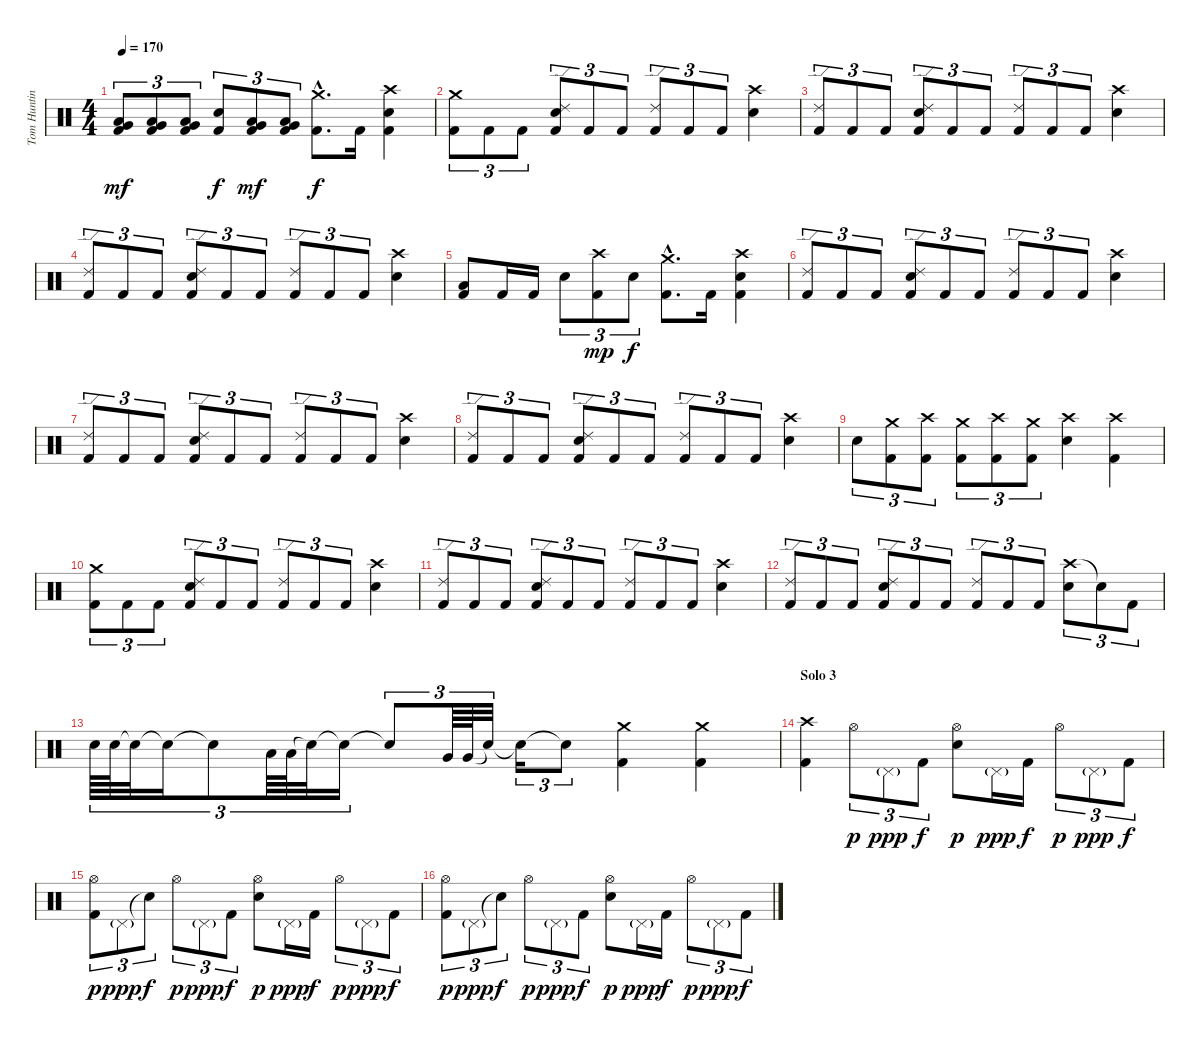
\track ("Tom Hunting" "Tom Huntin") {instrument percussion}
\staff {score}
\articulation defaults
\ts (4 4)
\tempo 170
\clef neutral
\ks c
("Kick (hit) 2" "Low Tom (hit)" "Very Low Tom (hit)").8{tu (3 2) dy mf} ("Kick (hit) 2" "Low Tom (hit)" "Very Low Tom (hit)").8{tu (3 2)} ("Kick (hit) 2" "Very Low Tom (hit)" "Low Floor Tom (hit)").8{tu (3 2)} ("Kick (hit) 2" "Snare (hit) 2").8{tu (3 2) dy f} ("Kick (hit) 2" "Low Tom (hit)" "Very Low Tom (hit)").8{tu (3 2) dy mf} ("Kick (hit) 2" "Very Low Tom (hit)" "Low Floor Tom (hit)").8{tu (3 2)} ("Kick (hit) 2"{hac} "Crash medium (hit)"{hac}).8{d dy f} "Kick (hit) 2".16 ("Kick (hit) 2" "Crash high (hit)" "Snare (hit) 2").4 |
("Kick (hit) 2" "Crash medium (hit)").8{tu (3 2)} "Kick (hit) 2".8{tu (3 2)} "Kick (hit) 2".8{tu (3 2)} ("Kick (hit) 2" "Ride (edge) 2" "Snare (hit) 2").8{tu (3 2)} "Kick (hit) 2".8{tu (3 2)} "Kick (hit) 2".8{tu (3 2)} ("Kick (hit) 2" "Ride (edge) 2").8{tu (3 2)} "Kick (hit) 2".8{tu (3 2)} "Kick (hit) 2".8{tu (3 2)} ("Crash high (hit)" "Snare (hit) 2").4 |
("Kick (hit) 2" "Ride (edge) 2").8{tu (3 2)} "Kick (hit) 2".8{tu (3 2)} "Kick (hit) 2".8{tu (3 2)} ("Kick (hit) 2" "Ride (edge) 2" "Snare (hit) 2").8{tu (3 2)} "Kick (hit) 2".8{tu (3 2)} "Kick (hit) 2".8{tu (3 2)} ("Kick (hit) 2" "Ride (edge) 2").8{tu (3 2)} "Kick (hit) 2".8{tu (3 2)} "Kick (hit) 2".8{tu (3 2)} ("Crash high (hit)" "Snare (hit) 2").4 |
("Kick (hit) 2" "Ride (edge) 2").8{tu (3 2)} "Kick (hit) 2".8{tu (3 2)} "Kick (hit) 2".8{tu (3 2)} ("Kick (hit) 2" "Ride (edge) 2" "Snare (hit) 2").8{tu (3 2)} "Kick (hit) 2".8{tu (3 2)} "Kick (hit) 2".8{tu (3 2)} ("Kick (hit) 2" "Ride (edge) 2").8{tu (3 2)} "Kick (hit) 2".8{tu (3 2)} "Kick (hit) 2".8{tu (3 2)} ("Crash high (hit)" "Snare (hit) 2").4 |
("Kick (hit) 2" "Low Tom (hit)").8 "Kick (hit) 2".16 "Kick (hit) 2".16 "Snare (hit) 2".8{tu (3 2)} ("Kick (hit) 2" "Crash high (hit)").8{tu (3 2) dy mp} "Snare (hit) 2".8{tu (3 2) dy f} ("Kick (hit) 2"{hac} "Crash medium (hit)"{hac}).8{d} "Kick (hit) 2".16 ("Kick (hit) 2" "Crash high (hit)" "Snare (hit) 2").4 |
("Kick (hit) 2" "Ride (edge) 2").8{tu (3 2)} "Kick (hit) 2".8{tu (3 2)} "Kick (hit) 2".8{tu (3 2)} ("Kick (hit) 2" "Ride (edge) 2" "Snare (hit) 2").8{tu (3 2)} "Kick (hit) 2".8{tu (3 2)} "Kick (hit) 2".8{tu (3 2)} ("Kick (hit) 2" "Ride (edge) 2").8{tu (3 2)} "Kick (hit) 2".8{tu (3 2)} "Kick (hit) 2".8{tu (3 2)} ("Crash high (hit)" "Snare (hit) 2").4 |
("Kick (hit) 2" "Ride (edge) 2").8{tu (3 2)} "Kick (hit) 2".8{tu (3 2)} "Kick (hit) 2".8{tu (3 2)} ("Kick (hit) 2" "Ride (edge) 2" "Snare (hit) 2").8{tu (3 2)} "Kick (hit) 2".8{tu (3 2)} "Kick (hit) 2".8{tu (3 2)} ("Kick (hit) 2" "Ride (edge) 2").8{tu (3 2)} "Kick (hit) 2".8{tu (3 2)} "Kick (hit) 2".8{tu (3 2)} ("Crash high (hit)" "Snare (hit) 2").4 |
("Kick (hit) 2" "Ride (edge) 2").8{tu (3 2)} "Kick (hit) 2".8{tu (3 2)} "Kick (hit) 2".8{tu (3 2)} ("Kick (hit) 2" "Ride (edge) 2" "Snare (hit) 2").8{tu (3 2)} "Kick (hit) 2".8{tu (3 2)} "Kick (hit) 2".8{tu (3 2)} ("Kick (hit) 2" "Ride (edge) 2").8{tu (3 2)} "Kick (hit) 2".8{tu (3 2)} "Kick (hit) 2".8{tu (3 2)} ("Crash high (hit)" "Snare (hit) 2").4 |
"Snare (hit) 2".8{tu (3 2)} ("Kick (hit) 2" "Crash medium (hit)").8{tu (3 2)} ("Kick (hit) 2" "Crash high (hit)").8{tu (3 2)} ("Kick (hit) 2" "Crash medium (hit)").8{tu (3 2)} ("Kick (hit) 2" "Crash high (hit)").8{tu (3 2)} ("Kick (hit) 2" "Crash medium (hit)").8{tu (3 2)} ("Crash high (hit)" "Snare (hit) 2").4 ("Kick (hit) 2" "Crash high (hit)").4 |
("Kick (hit) 2" "Crash medium (hit)").8{tu (3 2)} "Kick (hit) 2".8{tu (3 2)} "Kick (hit) 2".8{tu (3 2)} ("Kick (hit) 2" "Ride (edge) 2" "Snare (hit) 2").8{tu (3 2)} "Kick (hit) 2".8{tu (3 2)} "Kick (hit) 2".8{tu (3 2)} ("Kick (hit) 2" "Ride (edge) 2").8{tu (3 2)} "Kick (hit) 2".8{tu (3 2)} "Kick (hit) 2".8{tu (3 2)} ("Crash high (hit)" "Snare (hit) 2").4 |
("Kick (hit) 2" "Ride (edge) 2").8{tu (3 2)} "Kick (hit) 2".8{tu (3 2)} "Kick (hit) 2".8{tu (3 2)} ("Kick (hit) 2" "Ride (edge) 2" "Snare (hit) 2").8{tu (3 2)} "Kick (hit) 2".8{tu (3 2)} "Kick (hit) 2".8{tu (3 2)} ("Kick (hit) 2" "Ride (edge) 2").8{tu (3 2)} "Kick (hit) 2".8{tu (3 2)} "Kick (hit) 2".8{tu (3 2)} ("Crash high (hit)" "Snare (hit) 2").4 |
("Kick (hit) 2" "Ride (edge) 2").8{tu (3 2)} "Kick (hit) 2".8{tu (3 2)} "Kick (hit) 2".8{tu (3 2)} ("Kick (hit) 2" "Ride (edge) 2" "Snare (hit) 2").8{tu (3 2)} "Kick (hit) 2".8{tu (3 2)} "Kick (hit) 2".8{tu (3 2)} ("Kick (hit) 2" "Ride (edge) 2").8{tu (3 2)} "Kick (hit) 2".8{tu (3 2)} "Kick (hit) 2".8{tu (3 2)} ("Crash high (hit)" "Snare (hit) 2").8{tu (3 2)} "Snare (hit)"{t}.8{tu (3 2)} "Kick (hit) 2".8{tu (3 2)} |
"Snare (hit) 2".64{tu (3 2)} "Snare (hit) 2".64{tu (3 2)} "Snare (hit)"{t}.32{tu (3 2)} "Snare (hit)"{t}.16{tu (3 2)} "Snare (hit)"{t}.8{tu (3 2)} "Low Tom (hit)".64{tu (3 2)} "Low Tom (hit)".64{tu (3 2)} "Snare (hit)"{t}.32{tu (3 2)} "Snare (hit)"{t}.16{tu (3 2)} "Snare (hit)"{t}.8{tu (3 2)} "Very Low Tom (hit)".64{tu (3 2)} "Very Low Tom (hit)".64{tu (3 2)} "Snare (hit)"{t}.32{tu (3 2)} "Snare (hit)"{t}.16{tu (3 2)} "Snare (hit)"{t}.8{tu (3 2)} ("Kick (hit) 2" "Crash medium (hit)").4 ("Kick (hit) 2" "Crash medium (hit)").4 |
\section ("" "Solo 3")
("Kick (hit) 2" "Crash high (hit)").4 "Hi-Hat (open)".8{tu (3 2) dy p} "Pedal Hi-Hat (hit)"{g}.8{tu (3 2) dy ppp} "Kick (hit) 2".8{tu (3 2) dy f} ("Hi-Hat (open)" "Snare (hit) 2").8{dy p} "Pedal Hi-Hat (hit)"{g}.16{dy ppp} "Kick (hit) 2".16{dy f} "Hi-Hat (open)".8{tu (3 2) dy p} "Pedal Hi-Hat (hit)"{g}.8{tu (3 2) dy ppp} "Kick (hit) 2".8{tu (3 2) dy f} |
("Kick (hit) 2" "Hi-Hat (open)").8{tu (3 2) dy p} "Pedal Hi-Hat (hit)"{g}.8{tu (3 2) dy ppp} "Snare (hit)"{t}.8{tu (3 2) dy f} "Hi-Hat (open)".8{tu (3 2) dy p} "Pedal Hi-Hat (hit)"{g}.8{tu (3 2) dy ppp} "Kick (hit) 2".8{tu (3 2) dy f} ("Hi-Hat (open)" "Snare (hit) 2").8{dy p} "Pedal Hi-Hat (hit)"{g}.16{dy ppp} "Kick (hit) 2".16{dy f} "Hi-Hat (open)".8{tu (3 2) dy p} "Pedal Hi-Hat (hit)"{g}.8{tu (3 2) dy ppp} "Kick (hit) 2".8{tu (3 2) dy f} |
("Kick (hit) 2" "Hi-Hat (open)").8{tu (3 2) dy p} "Pedal Hi-Hat (hit)"{g}.8{tu (3 2) dy ppp} "Snare (hit)"{t}.8{tu (3 2) dy f} "Hi-Hat (open)".8{tu (3 2) dy p} "Pedal Hi-Hat (hit)"{g}.8{tu (3 2) dy ppp} "Kick (hit) 2".8{tu (3 2) dy f} ("Hi-Hat (open)" "Snare (hit) 2").8{dy p} "Pedal Hi-Hat (hit)"{g}.16{dy ppp} "Kick (hit) 2".16{dy f} "Hi-Hat (open)".8{tu (3 2) dy p} "Pedal Hi-Hat (hit)"{g}.8{tu (3 2) dy ppp} "Kick (hit) 2".8{tu (3 2) dy f}
